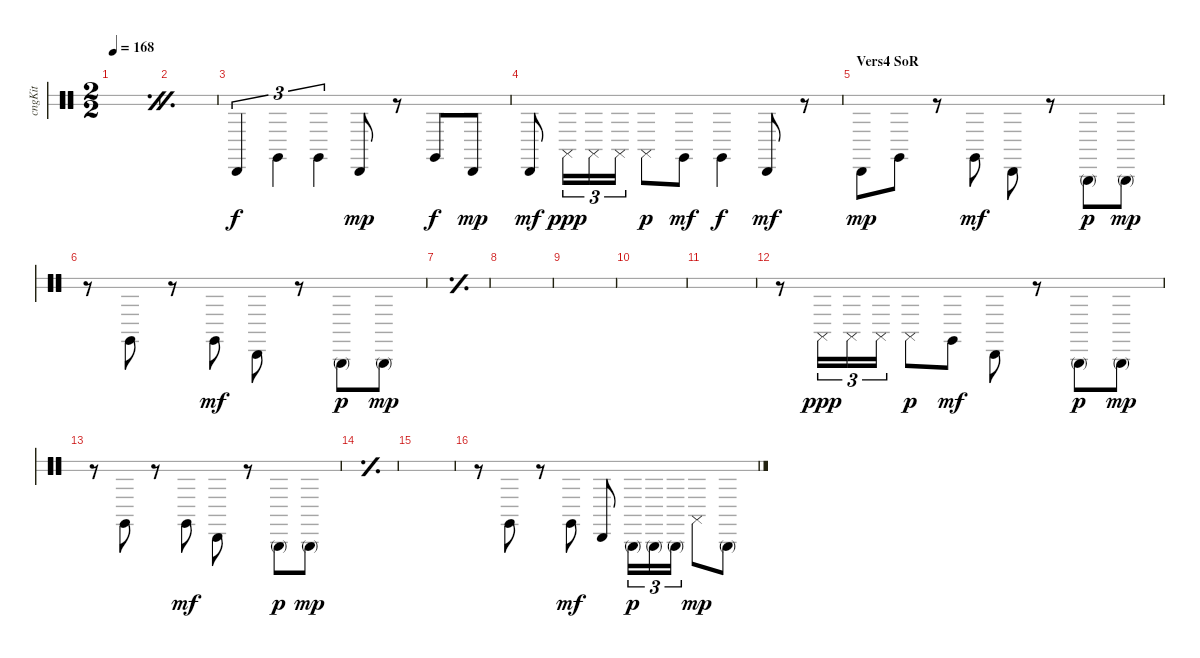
\bracketExtendMode groupsimilarinstruments
\multiTrackTrackNamePolicy hidden
\otherSystemsTrackNameOrientation horizontal
\track ("Congas" "cngKit") {instrument percussion}
\staff {score 2}
\articulation defaults
\ts (2 2)
\tempo 168
\clef neutral
\simile firstofdouble
\ks c
|
\simile secondofdouble
|
\simile none "Conga low (hit)".4{tu (3 2) beam Up} "Conga high (hit)".4{tu (3 2) beam Down} "Conga high (hit)".4{tu (3 2) dy f beam Down} "Conga low (hit)".8{dy mp beam Up}
r.8{beam Up} "Conga high (hit)".8{dy f beam Up} "Conga low (hit)".8{dy mp beam Up} |
"Conga low (hit)".8{dy mf beam Up} "Conga high (slap)".16{tu (3 2) dy ppp beam Down} "Conga high (slap)".16{tu (3 2) beam Down} "Conga high (slap)".16{tu (3 2) beam Down} "Conga high (slap)".8{dy p beam Down} "Conga high (hit)".8{dy mf beam Down} "Conga high (hit)".4{dy f beam Down} "Conga low (hit)".8{dy mf beam Up} r.8{beam Up} |
\section ("" "Vers4 SoR")
"Conga low (hit)".8{dy mp beam Down} "Conga high (hit)".8{beam Down} r.8{beam Down} "Conga high (hit)".8{dy mf beam Down} "Conga low (hit)".8{beam Down} r.8{beam Down} "Conga high (mute)".8{dy p beam Down} "Conga high (mute)".8{dy mp beam Down} |
r.8{beam Down} "Conga high (hit)".8{beam Down} r.8{beam Down} "Conga high (hit)".8{dy mf beam Down} "Conga low (hit)".8{beam Down} r.8{beam Down} "Conga high (mute)".8{dy p beam Down} "Conga high (mute)".8{dy mp beam Down} |
\simile simple
|
|
|
|
|
\simile none
r.8{beam Down} "Conga high (slap)".16{tu (3 2) dy ppp beam Down} "Conga high (slap)".16{tu (3 2) beam Down} "Conga high (slap)".16{tu (3 2) beam Down} "Conga high (slap)".8{dy p beam Down} "Conga high (hit)".8{dy mf beam Down} "Conga low (hit)".8{beam Down} r.8{beam Down} "Conga high (mute)".8{dy p beam Down} "Conga high (mute)".8{dy mp beam Down} |
r.8{beam Down} "Conga high (hit)".8{beam Down} r.8{beam Down} "Conga high (hit)".8{dy mf beam Down} "Conga low (hit)".8{beam Down} r.8{beam Down} "Conga high (mute)".8{dy p beam Down} "Conga high (mute)".8{dy mp beam Down} |
\simile simple
|
|
\simile none
r.8{beam Down} "Conga high (hit)".8{beam Down} r.8{beam Down} "Conga high (hit)".8{dy mf beam Down} "Conga low (hit)".8{beam Up} "Conga high (mute)".16{tu (3 2) dy p beam Down} "Conga high (mute)".16{tu (3 2) beam Down} "Conga high (mute)".16{tu (3 2) beam Down} "Conga high (slap)".8{dy mp beam Down} "Conga high (mute)".8{beam Down}
